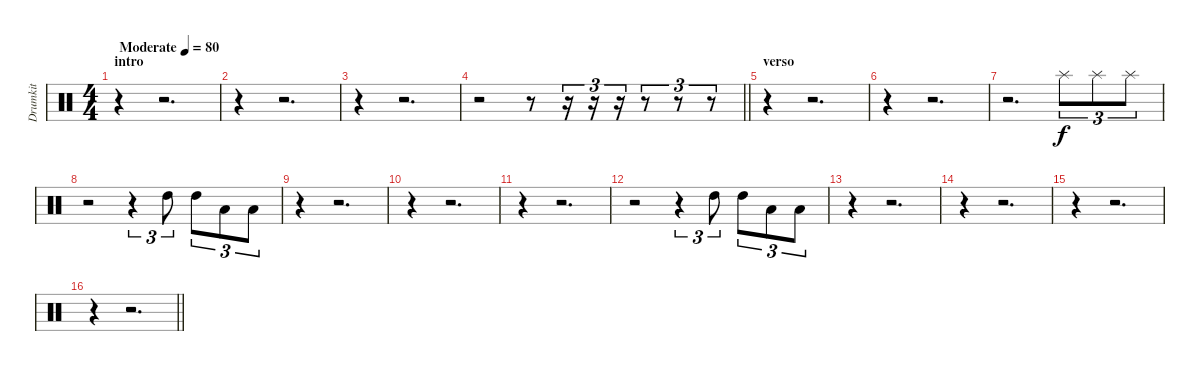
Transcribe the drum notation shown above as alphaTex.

\track ("Drumkit" "Drumkit") {instrument percussion}
\staff {score}
\articulation defaults
\ts (4 4)
\section ("" "intro")
\tempo (80 "Moderate")
\clef neutral
\ks c
r.4{dy f} r.2{d} |
r.4 r.2{d} |
r.4 r.2{d} |
\barLineRight lightlight
r.2 r.8 r.16{tu (3 2)} r.16{tu (3 2)} r.16{tu (3 2)} r.8{tu (3 2)} r.8{tu (3 2)} r.8{tu (3 2)} |
\section ("" "verso")
r.4 r.2{d} |
r.4 r.2{d} |
r.2{d} "Splash (hit)".8{tu (3 2)} "Splash (hit)".8{tu (3 2)} "Splash (hit)".8{tu (3 2)} |
r.2 r.4{tu (3 2)} "High Tom (hit)".8{tu (3 2)} "High Tom (hit)".8{tu (3 2)} "Low Tom (hit)".8{tu (3 2)} "Low Tom (hit)".8{tu (3 2)} |
r.4 r.2{d} |
r.4 r.2{d} |
r.4 r.2{d} |
r.2 r.4{tu (3 2)} "High Tom (hit)".8{tu (3 2)} "High Tom (hit)".8{tu (3 2)} "Low Tom (hit)".8{tu (3 2)} "Low Tom (hit)".8{tu (3 2)} |
r.4 r.2{d} |
r.4 r.2{d} |
r.4 r.2{d} |
\barLineRight lightlight
r.4 r.2{d}
